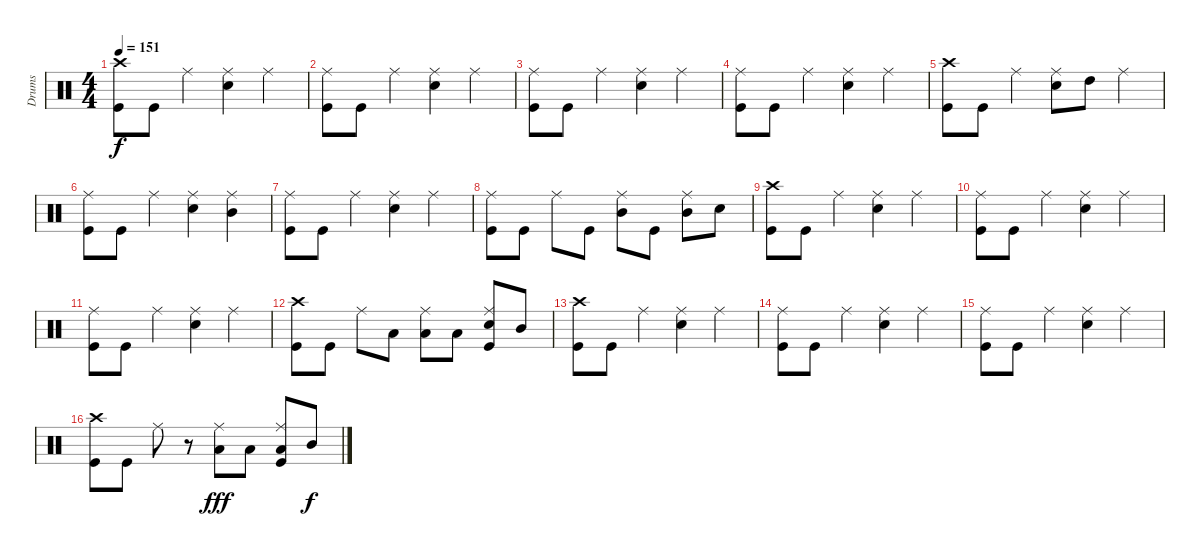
\track ("Drums" "Drums") {instrument percussion}
\staff {score}
\articulation defaults
\ts (4 4)
\tempo 151
\clef neutral
\ks c
("Crash high (hit)" "Kick (hit)").8{dy f} "Kick (hit)".8 "Ride (middle)".4 ("Ride (middle)" "Electric Snare (hit)").4 "Ride (middle)".4 |
("Ride (middle)" "Kick (hit)").8 "Kick (hit)".8 "Ride (middle)".4 ("Ride (middle)" "Electric Snare (hit)").4 "Ride (middle)".4 |
("Ride (middle)" "Kick (hit)").8 "Kick (hit)".8 "Ride (middle)".4 ("Ride (middle)" "Electric Snare (hit)").4 "Ride (middle)".4 |
("Ride (middle)" "Kick (hit)").8 "Kick (hit)".8 "Ride (middle)".4 ("Ride (middle)" "Electric Snare (hit)").4 "Ride (middle)".4 |
("Crash high (hit)" "Kick (hit)").8 "Kick (hit)".8 "Ride (middle)".4 ("Ride (middle)" "Electric Snare (hit)").8 "High Tom (hit)".8 "Ride (middle)".4 |
("Ride (middle)" "Kick (hit)").8 "Kick (hit)".8 "Ride (middle)".4 ("Ride (middle)" "Electric Snare (hit)").4 ("Ride (middle)" "Mid Tom (hit)").4 |
("Ride (middle)" "Kick (hit)").8 "Kick (hit)".8 "Ride (middle)".4 ("Ride (middle)" "Electric Snare (hit)").4 "Ride (middle)".4 |
("Ride (middle)" "Kick (hit)").8 "Kick (hit)".8 "Ride (middle)".8 "Kick (hit)".8 ("Ride (middle)" "Mid Tom (hit)").8 "Kick (hit)".8 ("Ride (middle)" "Mid Tom (hit)").8 "Electric Snare (hit)".8 |
("Crash high (hit)" "Kick (hit)").8 "Kick (hit)".8 "Ride (middle)".4 ("Ride (middle)" "Electric Snare (hit)").4 "Ride (middle)".4 |
("Ride (middle)" "Kick (hit)").8 "Kick (hit)".8 "Ride (middle)".4 ("Ride (middle)" "Electric Snare (hit)").4 "Ride (middle)".4 |
("Ride (middle)" "Kick (hit)").8 "Kick (hit)".8 "Ride (middle)".4 ("Ride (middle)" "Electric Snare (hit)").4 "Ride (middle)".4 |
("Crash high (hit)" "Kick (hit)").8 "Kick (hit)".8 "Ride (middle)".8 "Low Floor Tom (hit)".8 ("Ride (middle)" "Low Floor Tom (hit)").8 "Low Floor Tom (hit)".8 ("Ride (middle)" "Electric Snare (hit)" "Kick (hit)").8 "Mid Tom (hit)".8 |
("Crash high (hit)" "Kick (hit)").8 "Kick (hit)".8 "Ride (middle)".4 ("Ride (middle)" "Electric Snare (hit)").4 "Ride (middle)".4 |
("Ride (middle)" "Kick (hit)").8 "Kick (hit)".8 "Ride (middle)".4 ("Ride (middle)" "Electric Snare (hit)").4 "Ride (middle)".4 |
("Ride (middle)" "Kick (hit)").8 "Kick (hit)".8 "Ride (middle)".4 ("Ride (middle)" "Electric Snare (hit)").4 "Ride (middle)".4 |
("Crash high (hit)" "Kick (hit)").8 "Kick (hit)".8 "Ride (middle)".8 r.8 ("Ride (middle)" "Low Floor Tom (hit)").8{dy fff} "Low Floor Tom (hit)".8 ("Ride (middle)" "Low Floor Tom (hit)" "Kick (hit)").8 "Mid Tom (hit)".8{dy f}
